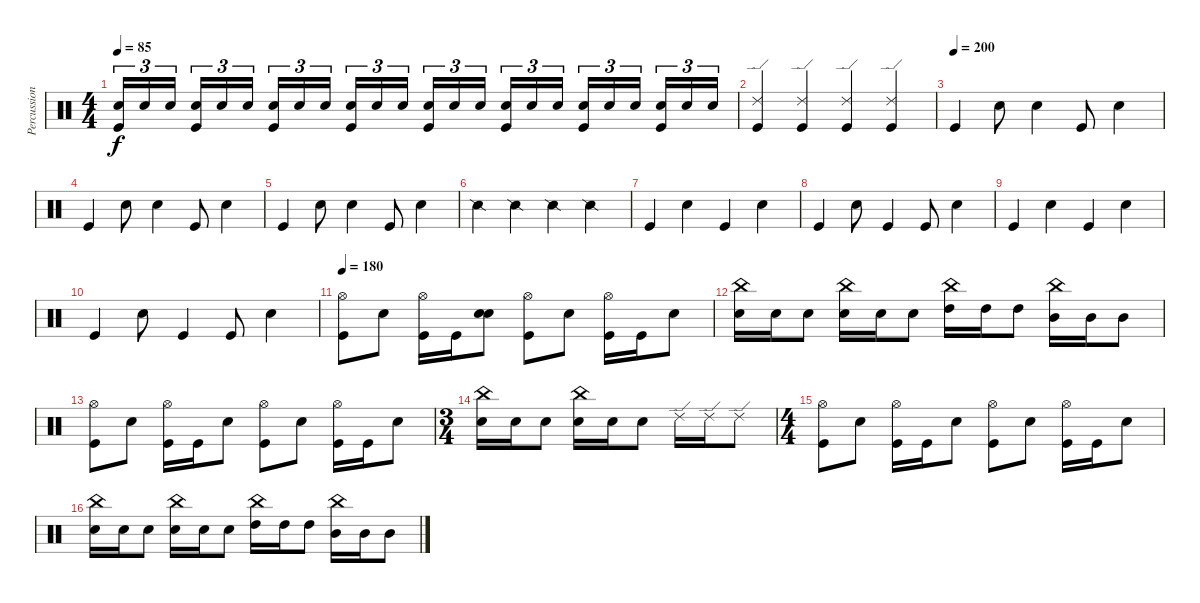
\track ("Percussion" "Percussion") {instrument percussion}
\staff {score}
\articulation defaults
\ts (4 4)
\tempo 85
\clef neutral
\ks c
("Snare (hit) 2" "Kick (hit)").16{tu (3 2) dy f} "Snare (hit) 2".16{tu (3 2)} "Snare (hit) 2".16{tu (3 2) beam splitsecondary} ("Snare (hit) 2" "Kick (hit)").16{tu (3 2)} "Snare (hit) 2".16{tu (3 2)} "Snare (hit) 2".16{tu (3 2)} ("Snare (hit) 2" "Kick (hit)").16{tu (3 2)} "Snare (hit) 2".16{tu (3 2)} "Snare (hit) 2".16{tu (3 2) beam splitsecondary} ("Snare (hit) 2" "Kick (hit)").16{tu (3 2)} "Snare (hit) 2".16{tu (3 2)} "Snare (hit) 2".16{tu (3 2)} ("Snare (hit) 2" "Kick (hit)").16{tu (3 2)} "Snare (hit) 2".16{tu (3 2)} "Snare (hit) 2".16{tu (3 2) beam splitsecondary} ("Snare (hit) 2" "Kick (hit)").16{tu (3 2)} "Snare (hit) 2".16{tu (3 2)} "Snare (hit) 2".16{tu (3 2)} ("Snare (hit) 2" "Kick (hit)").16{tu (3 2)} "Snare (hit) 2".16{tu (3 2)} "Snare (hit) 2".16{tu (3 2) beam splitsecondary} ("Snare (hit) 2" "Kick (hit)").16{tu (3 2)} "Snare (hit) 2".16{tu (3 2)} "Snare (hit) 2".16{tu (3 2)} |
("Ride (edge) 2" "Kick (hit)").4 ("Ride (edge) 2" "Kick (hit)").4 ("Ride (edge) 2" "Kick (hit)").4 ("Ride (edge) 2" "Kick (hit)").4 |
\tempo (200)
"Kick (hit)".4 "Snare (hit) 2".8 "Snare (hit) 2".4 "Kick (hit)".8 "Snare (hit) 2".4 |
"Kick (hit)".4 "Snare (hit) 2".8 "Snare (hit) 2".4 "Kick (hit)".8 "Snare (hit) 2".4 |
"Kick (hit)".4 "Snare (hit) 2".8 "Snare (hit) 2".4 "Kick (hit)".8 "Snare (hit) 2".4 |
"Snare (side stick) 2".4 "Snare (side stick) 2".4 "Snare (side stick) 2".4 "Snare (side stick) 2".4 |
"Kick (hit)".4 "Snare (hit) 2".4 "Kick (hit)".4 "Snare (hit) 2".4 |
"Kick (hit)".4 "Snare (hit) 2".8 "Kick (hit)".4 "Kick (hit)".8 "Snare (hit) 2".4 |
"Kick (hit)".4 "Snare (hit) 2".4 "Kick (hit)".4 "Snare (hit) 2".4 |
"Kick (hit)".4 "Snare (hit) 2".8 "Kick (hit)".4 "Kick (hit)".8 "Snare (hit) 2".4 |
\tempo 180
("Hi-Hat (open)" "Kick (hit)").8 "Snare (hit) 2".8 ("Hi-Hat (open)" "Kick (hit)").16 "Kick (hit)".16 ("Snare (hit)" "Snare (hit) 2").8 ("Hi-Hat (open)" "Kick (hit)").8 "Snare (hit) 2".8 ("Hi-Hat (open)" "Kick (hit)").16 "Kick (hit)".16 "Snare (hit) 2".8 |
("China (hit)" "Snare (hit) 2").16 "Snare (hit) 2".16 "Snare (hit) 2".8 ("China (hit)" "Snare (hit) 2").16 "Snare (hit) 2".16 "Snare (hit) 2".8 ("China (hit)" "High Tom (hit)").16 "High Tom (hit)".16 "High Tom (hit)".8 ("China (hit)" "Mid Tom (hit)").16 "Mid Tom (hit)".16 "Mid Tom (hit)".8 |
("Hi-Hat (open)" "Kick (hit)").8 "Snare (hit) 2".8 ("Hi-Hat (open)" "Kick (hit)").16 "Kick (hit)".16 "Snare (hit) 2".8 ("Hi-Hat (open)" "Kick (hit)").8 "Snare (hit) 2".8 ("Hi-Hat (open)" "Kick (hit)").16 "Kick (hit)".16 "Snare (hit) 2".8 |
\ts (3 4)
("China (hit)" "Snare (hit) 2").16 "Snare (hit) 2".16 "Snare (hit) 2".8 ("China (hit)" "Snare (hit) 2").16 "Snare (hit) 2".16 "Snare (hit) 2".8 "Ride (edge) 2".16 "Ride (edge) 2".16 "Ride (edge) 2".8 |
\ts (4 4)
("Hi-Hat (open)" "Kick (hit)").8 "Snare (hit) 2".8 ("Hi-Hat (open)" "Kick (hit)").16 "Kick (hit)".16 "Snare (hit) 2".8 ("Hi-Hat (open)" "Kick (hit)").8 "Snare (hit) 2".8 ("Hi-Hat (open)" "Kick (hit)").16 "Kick (hit)".16 "Snare (hit) 2".8 |
("China (hit)" "Snare (hit) 2").16 "Snare (hit) 2".16 "Snare (hit) 2".8 ("China (hit)" "Snare (hit) 2").16 "Snare (hit) 2".16 "Snare (hit) 2".8 ("China (hit)" "High Tom (hit)").16 "High Tom (hit)".16 "High Tom (hit)".8 ("China (hit)" "Mid Tom (hit)").16 "Mid Tom (hit)".16 "Mid Tom (hit)".8
